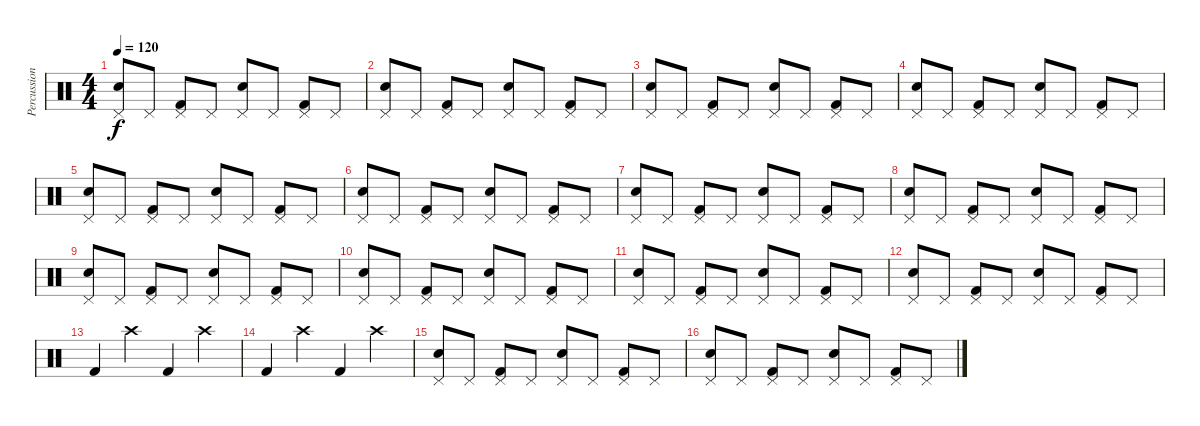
\track ("Percussion" "Percussion") {instrument percussion}
\staff {score}
\articulation defaults
\ts (4 4)
\tempo 120
\clef neutral
\ks c
("Pedal Hi-Hat (hit)" "Snare (hit) 2").8{dy f} "Pedal Hi-Hat (hit)".8 ("Pedal Hi-Hat (hit)" "Kick (hit) 2").8 "Pedal Hi-Hat (hit)".8 ("Pedal Hi-Hat (hit)" "Snare (hit) 2").8 "Pedal Hi-Hat (hit)".8 ("Pedal Hi-Hat (hit)" "Kick (hit) 2").8 "Pedal Hi-Hat (hit)".8 |
("Pedal Hi-Hat (hit)" "Snare (hit) 2").8 "Pedal Hi-Hat (hit)".8 ("Pedal Hi-Hat (hit)" "Kick (hit) 2").8 "Pedal Hi-Hat (hit)".8 ("Pedal Hi-Hat (hit)" "Snare (hit) 2").8 "Pedal Hi-Hat (hit)".8 ("Pedal Hi-Hat (hit)" "Kick (hit) 2").8 "Pedal Hi-Hat (hit)".8 |
("Pedal Hi-Hat (hit)" "Snare (hit) 2").8 "Pedal Hi-Hat (hit)".8 ("Pedal Hi-Hat (hit)" "Kick (hit) 2").8 "Pedal Hi-Hat (hit)".8 ("Pedal Hi-Hat (hit)" "Snare (hit) 2").8 "Pedal Hi-Hat (hit)".8 ("Pedal Hi-Hat (hit)" "Kick (hit) 2").8 "Pedal Hi-Hat (hit)".8 |
("Pedal Hi-Hat (hit)" "Snare (hit) 2").8 "Pedal Hi-Hat (hit)".8 ("Pedal Hi-Hat (hit)" "Kick (hit) 2").8 "Pedal Hi-Hat (hit)".8 ("Pedal Hi-Hat (hit)" "Snare (hit) 2").8 "Pedal Hi-Hat (hit)".8 ("Pedal Hi-Hat (hit)" "Kick (hit) 2").8 "Pedal Hi-Hat (hit)".8 |
("Pedal Hi-Hat (hit)" "Snare (hit) 2").8 "Pedal Hi-Hat (hit)".8 ("Pedal Hi-Hat (hit)" "Kick (hit) 2").8 "Pedal Hi-Hat (hit)".8 ("Pedal Hi-Hat (hit)" "Snare (hit) 2").8 "Pedal Hi-Hat (hit)".8 ("Pedal Hi-Hat (hit)" "Kick (hit) 2").8 "Pedal Hi-Hat (hit)".8 |
("Pedal Hi-Hat (hit)" "Snare (hit) 2").8 "Pedal Hi-Hat (hit)".8 ("Pedal Hi-Hat (hit)" "Kick (hit) 2").8 "Pedal Hi-Hat (hit)".8 ("Pedal Hi-Hat (hit)" "Snare (hit) 2").8 "Pedal Hi-Hat (hit)".8 ("Pedal Hi-Hat (hit)" "Kick (hit) 2").8 "Pedal Hi-Hat (hit)".8 |
("Pedal Hi-Hat (hit)" "Snare (hit) 2").8 "Pedal Hi-Hat (hit)".8 ("Pedal Hi-Hat (hit)" "Kick (hit) 2").8 "Pedal Hi-Hat (hit)".8 ("Pedal Hi-Hat (hit)" "Snare (hit) 2").8 "Pedal Hi-Hat (hit)".8 ("Pedal Hi-Hat (hit)" "Kick (hit) 2").8 "Pedal Hi-Hat (hit)".8 |
("Pedal Hi-Hat (hit)" "Snare (hit) 2").8 "Pedal Hi-Hat (hit)".8 ("Pedal Hi-Hat (hit)" "Kick (hit) 2").8 "Pedal Hi-Hat (hit)".8 ("Pedal Hi-Hat (hit)" "Snare (hit) 2").8 "Pedal Hi-Hat (hit)".8 ("Pedal Hi-Hat (hit)" "Kick (hit) 2").8 "Pedal Hi-Hat (hit)".8 |
("Pedal Hi-Hat (hit)" "Snare (hit) 2").8 "Pedal Hi-Hat (hit)".8 ("Pedal Hi-Hat (hit)" "Kick (hit) 2").8 "Pedal Hi-Hat (hit)".8 ("Pedal Hi-Hat (hit)" "Snare (hit) 2").8 "Pedal Hi-Hat (hit)".8 ("Pedal Hi-Hat (hit)" "Kick (hit) 2").8 "Pedal Hi-Hat (hit)".8 |
("Pedal Hi-Hat (hit)" "Snare (hit) 2").8 "Pedal Hi-Hat (hit)".8 ("Pedal Hi-Hat (hit)" "Kick (hit) 2").8 "Pedal Hi-Hat (hit)".8 ("Pedal Hi-Hat (hit)" "Snare (hit) 2").8 "Pedal Hi-Hat (hit)".8 ("Pedal Hi-Hat (hit)" "Kick (hit) 2").8 "Pedal Hi-Hat (hit)".8 |
("Pedal Hi-Hat (hit)" "Snare (hit) 2").8 "Pedal Hi-Hat (hit)".8 ("Pedal Hi-Hat (hit)" "Kick (hit) 2").8 "Pedal Hi-Hat (hit)".8 ("Pedal Hi-Hat (hit)" "Snare (hit) 2").8 "Pedal Hi-Hat (hit)".8 ("Pedal Hi-Hat (hit)" "Kick (hit) 2").8 "Pedal Hi-Hat (hit)".8 |
("Pedal Hi-Hat (hit)" "Snare (hit) 2").8 "Pedal Hi-Hat (hit)".8 ("Pedal Hi-Hat (hit)" "Kick (hit) 2").8 "Pedal Hi-Hat (hit)".8 ("Pedal Hi-Hat (hit)" "Snare (hit) 2").8 "Pedal Hi-Hat (hit)".8 ("Pedal Hi-Hat (hit)" "Kick (hit) 2").8 "Pedal Hi-Hat (hit)".8 |
"Kick (hit) 2".4 "Crash high (hit)".4 "Kick (hit) 2".4 "Crash high (hit)".4 |
"Kick (hit) 2".4 "Crash high (hit)".4 "Kick (hit) 2".4 "Crash high (hit)".4 |
("Pedal Hi-Hat (hit)" "Snare (hit) 2").8 "Pedal Hi-Hat (hit)".8 ("Pedal Hi-Hat (hit)" "Kick (hit) 2").8 "Pedal Hi-Hat (hit)".8 ("Pedal Hi-Hat (hit)" "Snare (hit) 2").8 "Pedal Hi-Hat (hit)".8 ("Pedal Hi-Hat (hit)" "Kick (hit) 2").8 "Pedal Hi-Hat (hit)".8 |
("Pedal Hi-Hat (hit)" "Snare (hit) 2").8 "Pedal Hi-Hat (hit)".8 ("Pedal Hi-Hat (hit)" "Kick (hit) 2").8 "Pedal Hi-Hat (hit)".8 ("Pedal Hi-Hat (hit)" "Snare (hit) 2").8 "Pedal Hi-Hat (hit)".8 ("Pedal Hi-Hat (hit)" "Kick (hit) 2").8 "Pedal Hi-Hat (hit)".8
